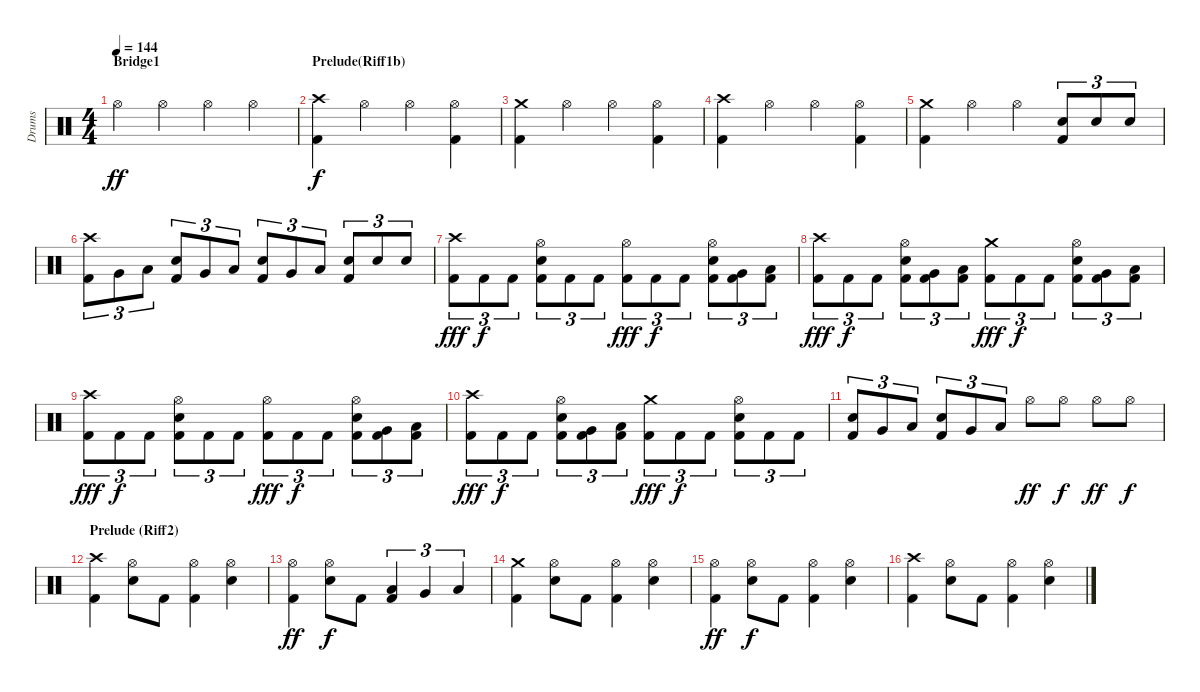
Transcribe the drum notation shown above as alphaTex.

\track ("Drums" "Drums") {instrument percussion}
\staff {score}
\articulation defaults
\ts (4 4)
\section ("" "Bridge1")
\tempo 144
\clef neutral
\ks c "Hi-Hat (open)".4{dy ff} "Hi-Hat (open)".4 "Hi-Hat (open)".4 "Hi-Hat (open)".4
|
\section ("" "Prelude(Riff1b)")
("Kick (hit) 2" "Crash high (hit)").4{dy f} "Hi-Hat (open)".4 "Hi-Hat (open)".4 ("Kick (hit) 2" "Hi-Hat (open)").4 |
("Kick (hit) 2" "Crash medium (hit)").4 "Hi-Hat (open)".4 "Hi-Hat (open)".4 ("Kick (hit) 2" "Hi-Hat (open)").4 |
("Kick (hit) 2" "Crash high (hit)").4 "Hi-Hat (open)".4 "Hi-Hat (open)".4 ("Kick (hit) 2" "Hi-Hat (open)").4 |
("Kick (hit) 2" "Crash medium (hit)").4 "Hi-Hat (open)".4 "Hi-Hat (open)".4 ("Kick (hit) 2" "Electric Snare (hit)").8{tu (3 2)} "Electric Snare (hit)".8{tu (3 2)} "Electric Snare (hit)".8{tu (3 2)} |
("Kick (hit) 2" "Crash high (hit)").8{tu (3 2)} "Very Low Tom (hit)".8{tu (3 2)} "Low Tom (hit)".8{tu (3 2)} ("Kick (hit) 2" "Electric Snare (hit)").8{tu (3 2)} "Very Low Tom (hit)".8{tu (3 2)} "Low Tom (hit)".8{tu (3 2)} ("Kick (hit) 2" "Electric Snare (hit)").8{tu (3 2)} "Very Low Tom (hit)".8{tu (3 2)} "Low Floor Tom (hit)".8{tu (3 2)} ("Kick (hit) 2" "Electric Snare (hit)").8{tu (3 2)} "Electric Snare (hit)".8{tu (3 2)} "Electric Snare (hit)".8{tu (3 2)} |
("Kick (hit) 2" "Crash high (hit)").8{tu (3 2) dy fff} "Kick (hit) 2".8{tu (3 2) dy f} "Kick (hit) 2".8{tu (3 2)} ("Kick (hit) 2" "Hi-Hat (open)" "Electric Snare (hit)").8{tu (3 2)} "Kick (hit) 2".8{tu (3 2)} "Kick (hit) 2".8{tu (3 2)} ("Kick (hit) 2" "Hi-Hat (open)").8{tu (3 2) dy fff} "Kick (hit) 2".8{tu (3 2) dy f} "Kick (hit) 2".8{tu (3 2)} ("Kick (hit) 2" "Hi-Hat (open)" "Electric Snare (hit)").8{tu (3 2)} ("Kick (hit) 2" "Very Low Tom (hit)").8{tu (3 2)} ("Kick (hit) 2" "Low Tom (hit)").8{tu (3 2)} |
("Kick (hit) 2" "Crash high (hit)").8{tu (3 2) dy fff} "Kick (hit) 2".8{tu (3 2) dy f} "Kick (hit) 2".8{tu (3 2)} ("Kick (hit) 2" "Hi-Hat (open)" "Electric Snare (hit)").8{tu (3 2)} ("Kick (hit) 2" "Very Low Tom (hit)").8{tu (3 2)} ("Kick (hit) 2" "Low Tom (hit)").8{tu (3 2)} ("Kick (hit) 2" "Crash medium (hit)").8{tu (3 2) dy fff} "Kick (hit) 2".8{tu (3 2) dy f} "Kick (hit) 2".8{tu (3 2)} ("Kick (hit) 2" "Hi-Hat (open)" "Electric Snare (hit)").8{tu (3 2)} ("Kick (hit) 2" "Very Low Tom (hit)").8{tu (3 2)} ("Kick (hit) 2" "Low Tom (hit)").8{tu (3 2)} |
("Kick (hit) 2" "Crash high (hit)").8{tu (3 2) dy fff} "Kick (hit) 2".8{tu (3 2) dy f} "Kick (hit) 2".8{tu (3 2)} ("Kick (hit) 2" "Hi-Hat (open)" "Electric Snare (hit)").8{tu (3 2)} "Kick (hit) 2".8{tu (3 2)} "Kick (hit) 2".8{tu (3 2)} ("Kick (hit) 2" "Hi-Hat (open)").8{tu (3 2) dy fff} "Kick (hit) 2".8{tu (3 2) dy f} "Kick (hit) 2".8{tu (3 2)} ("Kick (hit) 2" "Hi-Hat (open)" "Electric Snare (hit)").8{tu (3 2)} ("Kick (hit) 2" "Very Low Tom (hit)").8{tu (3 2)} ("Kick (hit) 2" "Low Tom (hit)").8{tu (3 2)} |
("Kick (hit) 2" "Crash high (hit)").8{tu (3 2) dy fff} "Kick (hit) 2".8{tu (3 2) dy f} "Kick (hit) 2".8{tu (3 2)} ("Kick (hit) 2" "Hi-Hat (open)" "Electric Snare (hit)").8{tu (3 2)} ("Kick (hit) 2" "Very Low Tom (hit)").8{tu (3 2)} ("Kick (hit) 2" "Low Tom (hit)").8{tu (3 2)} ("Kick (hit) 2" "Crash medium (hit)").8{tu (3 2) dy fff} "Kick (hit) 2".8{tu (3 2) dy f} "Kick (hit) 2".8{tu (3 2)} ("Kick (hit) 2" "Hi-Hat (open)" "Electric Snare (hit)").8{tu (3 2)} "Kick (hit) 2".8{tu (3 2)} "Kick (hit) 2".8{tu (3 2)} |
("Kick (hit) 2" "Electric Snare (hit)").8{tu (3 2)} "Very Low Tom (hit)".8{tu (3 2)} "Low Tom (hit)".8{tu (3 2)} ("Kick (hit) 2" "Electric Snare (hit)").8{tu (3 2)} "Very Low Tom (hit)".8{tu (3 2)} "Low Floor Tom (hit)".8{tu (3 2)} "Hi-Hat (open)".8{dy ff} "Hi-Hat (open)".8{dy f} "Hi-Hat (open)".8{dy ff} "Hi-Hat (open)".8{dy f} |
\section ("" "Prelude (Riff2)")
("Kick (hit) 2" "Crash high (hit)").4 ("Hi-Hat (open)" "Electric Snare (hit)").8 "Kick (hit) 2".8 ("Kick (hit) 2" "Hi-Hat (open)").4 ("Hi-Hat (open)" "Electric Snare (hit)").4 |
("Kick (hit) 2" "Hi-Hat (open)").4{dy ff} ("Hi-Hat (open)" "Electric Snare (hit)").8{dy f} "Kick (hit) 2".8 ("Kick (hit) 2" "Low Tom (hit)").4{tu (3 2)} "Very Low Tom (hit)".4{tu (3 2)} "Low Floor Tom (hit)".4{tu (3 2)} |
("Kick (hit) 2" "Crash medium (hit)").4 ("Hi-Hat (open)" "Electric Snare (hit)").8 "Kick (hit) 2".8 ("Kick (hit) 2" "Hi-Hat (open)").4 ("Hi-Hat (open)" "Electric Snare (hit)").4 |
("Kick (hit) 2" "Hi-Hat (open)").4{dy ff} ("Hi-Hat (open)" "Electric Snare (hit)").8{dy f} "Kick (hit) 2".8 ("Kick (hit) 2" "Hi-Hat (open)").4 ("Hi-Hat (open)" "Electric Snare (hit)").4 |
("Kick (hit) 2" "Crash high (hit)").4 ("Hi-Hat (open)" "Electric Snare (hit)").8 "Kick (hit) 2".8 ("Kick (hit) 2" "Hi-Hat (open)").4 ("Hi-Hat (open)" "Electric Snare (hit)").4
